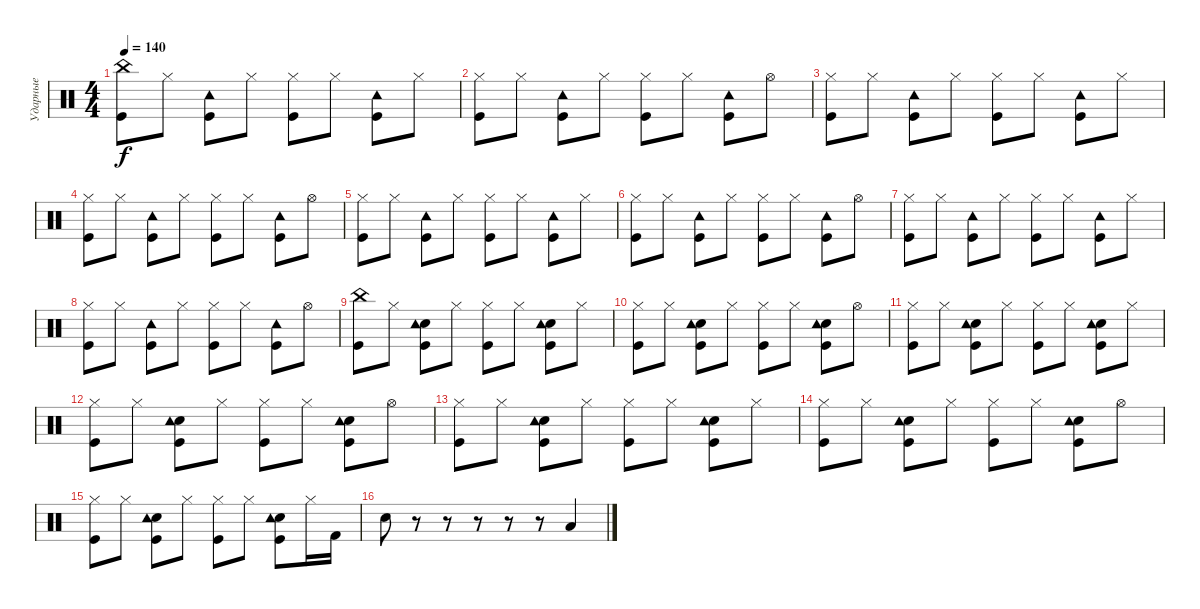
\track ("Ударные" "Ударные") {instrument percussion}
\staff {score}
\articulation defaults
\ts (4 4)
\tempo 140
\clef neutral
\ks c
("China (hit)" "Kick (hit)").8{dy f} "Hi-Hat (closed)".8 ("Kick (hit)" "Tambourine (hit)").8 "Hi-Hat (closed)".8 ("Kick (hit)" "Hi-Hat (closed)").8 "Hi-Hat (closed)".8 ("Kick (hit)" "Tambourine (hit)").8 "Hi-Hat (closed)".8 |
("Kick (hit)" "Hi-Hat (closed)").8 "Hi-Hat (closed)".8 ("Kick (hit)" "Tambourine (hit)").8 "Hi-Hat (closed)".8 ("Kick (hit)" "Hi-Hat (closed)").8 "Hi-Hat (closed)".8 ("Kick (hit)" "Tambourine (hit)").8 "Hi-Hat (open)".8 |
("Kick (hit)" "Hi-Hat (closed)").8 "Hi-Hat (closed)".8 ("Kick (hit)" "Tambourine (hit)").8 "Hi-Hat (closed)".8 ("Kick (hit)" "Hi-Hat (closed)").8 "Hi-Hat (closed)".8 ("Kick (hit)" "Tambourine (hit)").8 "Hi-Hat (closed)".8 |
("Kick (hit)" "Hi-Hat (closed)").8 "Hi-Hat (closed)".8 ("Kick (hit)" "Tambourine (hit)").8 "Hi-Hat (closed)".8 ("Kick (hit)" "Hi-Hat (closed)").8 "Hi-Hat (closed)".8 ("Kick (hit)" "Tambourine (hit)").8 "Hi-Hat (open)".8 |
("Kick (hit)" "Hi-Hat (closed)").8 "Hi-Hat (closed)".8 ("Kick (hit)" "Tambourine (hit)").8 "Hi-Hat (closed)".8 ("Kick (hit)" "Hi-Hat (closed)").8 "Hi-Hat (closed)".8 ("Kick (hit)" "Tambourine (hit)").8 "Hi-Hat (closed)".8 |
("Kick (hit)" "Hi-Hat (closed)").8 "Hi-Hat (closed)".8 ("Kick (hit)" "Tambourine (hit)").8 "Hi-Hat (closed)".8 ("Kick (hit)" "Hi-Hat (closed)").8 "Hi-Hat (closed)".8 ("Kick (hit)" "Tambourine (hit)").8 "Hi-Hat (open)".8 |
("Kick (hit)" "Hi-Hat (closed)").8 "Hi-Hat (closed)".8 ("Kick (hit)" "Tambourine (hit)").8 "Hi-Hat (closed)".8 ("Kick (hit)" "Hi-Hat (closed)").8 "Hi-Hat (closed)".8 ("Kick (hit)" "Tambourine (hit)").8 "Hi-Hat (closed)".8 |
("Kick (hit)" "Hi-Hat (closed)").8 "Hi-Hat (closed)".8 ("Kick (hit)" "Tambourine (hit)").8 "Hi-Hat (closed)".8 ("Kick (hit)" "Hi-Hat (closed)").8 "Hi-Hat (closed)".8 ("Kick (hit)" "Tambourine (hit)").8 "Hi-Hat (open)".8 |
("China (hit)" "Kick (hit)").8 "Hi-Hat (closed)".8 ("Electric Snare (hit)" "Kick (hit)" "Tambourine (hit)").8 "Hi-Hat (closed)".8 ("Kick (hit)" "Hi-Hat (closed)").8 "Hi-Hat (closed)".8 ("Electric Snare (hit)" "Kick (hit)" "Tambourine (hit)").8 "Hi-Hat (closed)".8 |
("Kick (hit)" "Hi-Hat (closed)").8 "Hi-Hat (closed)".8 ("Electric Snare (hit)" "Kick (hit)" "Tambourine (hit)").8 "Hi-Hat (closed)".8 ("Kick (hit)" "Hi-Hat (closed)").8 "Hi-Hat (closed)".8 ("Electric Snare (hit)" "Kick (hit)" "Tambourine (hit)").8 "Hi-Hat (open)".8 |
("Kick (hit)" "Hi-Hat (closed)").8 "Hi-Hat (closed)".8 ("Electric Snare (hit)" "Kick (hit)" "Tambourine (hit)").8 "Hi-Hat (closed)".8 ("Kick (hit)" "Hi-Hat (closed)").8 "Hi-Hat (closed)".8 ("Electric Snare (hit)" "Kick (hit)" "Tambourine (hit)").8 "Hi-Hat (closed)".8 |
("Kick (hit)" "Hi-Hat (closed)").8 "Hi-Hat (closed)".8 ("Electric Snare (hit)" "Kick (hit)" "Tambourine (hit)").8 "Hi-Hat (closed)".8 ("Kick (hit)" "Hi-Hat (closed)").8 "Hi-Hat (closed)".8 ("Electric Snare (hit)" "Kick (hit)" "Tambourine (hit)").8 "Hi-Hat (open)".8 |
("Kick (hit)" "Hi-Hat (closed)").8 "Hi-Hat (closed)".8 ("Electric Snare (hit)" "Kick (hit)" "Tambourine (hit)").8 "Hi-Hat (closed)".8 ("Kick (hit)" "Hi-Hat (closed)").8 "Hi-Hat (closed)".8 ("Electric Snare (hit)" "Kick (hit)" "Tambourine (hit)").8 "Hi-Hat (closed)".8 |
("Kick (hit)" "Hi-Hat (closed)").8 "Hi-Hat (closed)".8 ("Electric Snare (hit)" "Kick (hit)" "Tambourine (hit)").8 "Hi-Hat (closed)".8 ("Kick (hit)" "Hi-Hat (closed)").8 "Hi-Hat (closed)".8 ("Electric Snare (hit)" "Kick (hit)" "Tambourine (hit)").8 "Hi-Hat (open)".8 |
("Kick (hit)" "Hi-Hat (closed)").8 "Hi-Hat (closed)".8 ("Electric Snare (hit)" "Kick (hit)" "Tambourine (hit)").8 "Hi-Hat (closed)".8 ("Kick (hit)" "Hi-Hat (closed)").8 "Hi-Hat (closed)".8 ("Electric Snare (hit)" "Kick (hit)" "Tambourine (hit)").8 "Hi-Hat (closed)".16 "Kick (hit) 2".16 |
"Electric Snare (hit)".8 r.8 r.8 r.8 r.8 r.8 "Low Floor Tom (hit)".4
